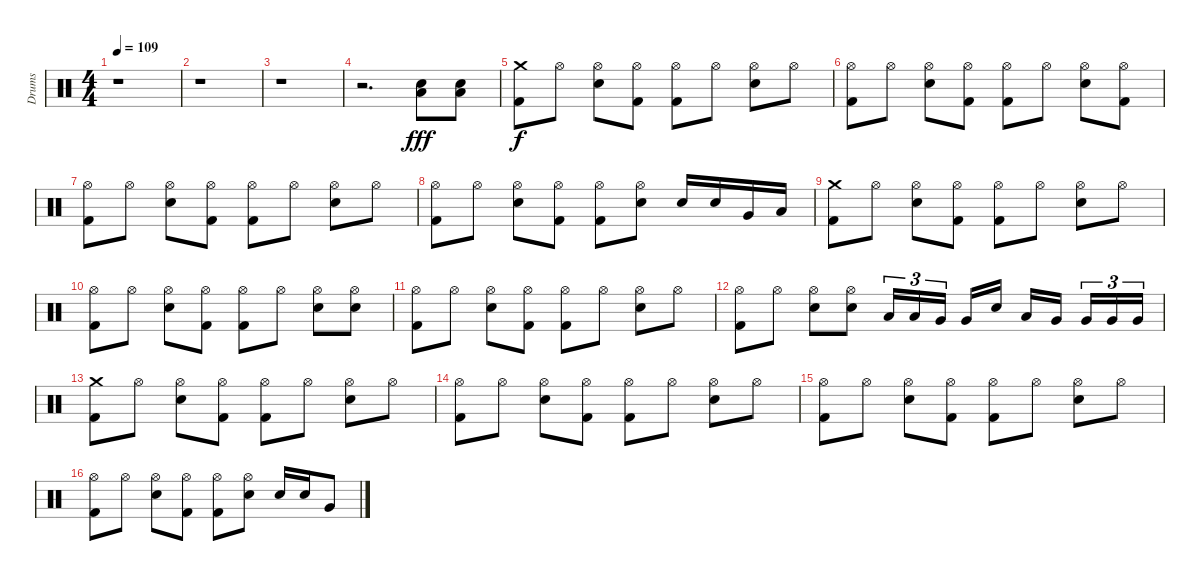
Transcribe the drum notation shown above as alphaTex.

\track ("Drums" "Drums") {instrument percussion}
\staff {score}
\articulation defaults
\ts (4 4)
\tempo 109
\clef neutral
\ks c
r.1{dy f} |
r.1 |
r.1 |
r.2{d} ("Low Floor Tom (hit)" "Electric Snare (hit)").8{dy fff} ("Low Floor Tom (hit)" "Electric Snare (hit)").8 |
("Crash medium (hit)" "Kick (hit) 2").8{dy f} "Hi-Hat (open)".8 ("Hi-Hat (open)" "Electric Snare (hit)").8 ("Hi-Hat (open)" "Kick (hit) 2").8 ("Hi-Hat (open)" "Kick (hit) 2").8 "Hi-Hat (open)".8 ("Hi-Hat (open)" "Electric Snare (hit)").8 "Hi-Hat (open)".8 |
("Hi-Hat (open)" "Kick (hit) 2").8 "Hi-Hat (open)".8 ("Hi-Hat (open)" "Electric Snare (hit)").8 ("Hi-Hat (open)" "Kick (hit) 2").8 ("Hi-Hat (open)" "Kick (hit) 2").8 "Hi-Hat (open)".8 ("Hi-Hat (open)" "Electric Snare (hit)").8 ("Hi-Hat (open)" "Kick (hit) 2").8 |
("Hi-Hat (open)" "Kick (hit) 2").8 "Hi-Hat (open)".8 ("Hi-Hat (open)" "Electric Snare (hit)").8 ("Hi-Hat (open)" "Kick (hit) 2").8 ("Hi-Hat (open)" "Kick (hit) 2").8 "Hi-Hat (open)".8 ("Hi-Hat (open)" "Electric Snare (hit)").8 "Hi-Hat (open)".8 |
("Hi-Hat (open)" "Kick (hit) 2").8 "Hi-Hat (open)".8 ("Hi-Hat (open)" "Electric Snare (hit)").8 ("Hi-Hat (open)" "Kick (hit) 2").8 ("Hi-Hat (open)" "Kick (hit) 2").8 ("Hi-Hat (open)" "Electric Snare (hit)").8 "Electric Snare (hit)".16 "Electric Snare (hit)".16 "Very Low Tom (hit)".16 "Low Tom (hit)".16 |
("Crash medium (hit)" "Kick (hit) 2").8 "Hi-Hat (open)".8 ("Hi-Hat (open)" "Electric Snare (hit)").8 ("Hi-Hat (open)" "Kick (hit) 2").8 ("Hi-Hat (open)" "Kick (hit) 2").8 "Hi-Hat (open)".8 ("Hi-Hat (open)" "Electric Snare (hit)").8 "Hi-Hat (open)".8 |
("Hi-Hat (open)" "Kick (hit) 2").8 "Hi-Hat (open)".8 ("Hi-Hat (open)" "Electric Snare (hit)").8 ("Hi-Hat (open)" "Kick (hit) 2").8 ("Hi-Hat (open)" "Kick (hit) 2").8 "Hi-Hat (open)".8 ("Hi-Hat (open)" "Electric Snare (hit)").8 ("Hi-Hat (open)" "Electric Snare (hit)").8 |
("Hi-Hat (open)" "Kick (hit) 2").8 "Hi-Hat (open)".8 ("Hi-Hat (open)" "Electric Snare (hit)").8 ("Hi-Hat (open)" "Kick (hit) 2").8 ("Hi-Hat (open)" "Kick (hit) 2").8 "Hi-Hat (open)".8 ("Hi-Hat (open)" "Electric Snare (hit)").8 "Hi-Hat (open)".8 |
("Hi-Hat (open)" "Kick (hit) 2").8 "Hi-Hat (open)".8 ("Hi-Hat (open)" "Electric Snare (hit)").8 ("Hi-Hat (open)" "Electric Snare (hit)").8 "Low Tom (hit)".16{tu (3 2)} "Low Tom (hit)".16{tu (3 2)} "Very Low Tom (hit)".16{tu (3 2)} "Very Low Tom (hit)".16 "Electric Snare (hit)".16 "Low Tom (hit)".16 "Very Low Tom (hit)".16 "Very Low Tom (hit)".16{tu (3 2)} "Very Low Tom (hit)".16{tu (3 2)} "Very Low Tom (hit)".16{tu (3 2)} |
("Crash medium (hit)" "Kick (hit) 2").8 "Hi-Hat (open)".8 ("Hi-Hat (open)" "Electric Snare (hit)").8 ("Hi-Hat (open)" "Kick (hit) 2").8 ("Hi-Hat (open)" "Kick (hit) 2").8 "Hi-Hat (open)".8 ("Hi-Hat (open)" "Electric Snare (hit)").8 "Hi-Hat (open)".8 |
("Hi-Hat (open)" "Kick (hit) 2").8 "Hi-Hat (open)".8 ("Hi-Hat (open)" "Electric Snare (hit)").8 ("Hi-Hat (open)" "Kick (hit) 2").8 ("Hi-Hat (open)" "Kick (hit) 2").8 "Hi-Hat (open)".8 ("Hi-Hat (open)" "Electric Snare (hit)").8 "Hi-Hat (open)".8 |
("Hi-Hat (open)" "Kick (hit) 2").8 "Hi-Hat (open)".8 ("Hi-Hat (open)" "Electric Snare (hit)").8 ("Hi-Hat (open)" "Kick (hit) 2").8 ("Hi-Hat (open)" "Kick (hit) 2").8 "Hi-Hat (open)".8 ("Hi-Hat (open)" "Electric Snare (hit)").8 "Hi-Hat (open)".8 |
("Hi-Hat (open)" "Kick (hit) 2").8 "Hi-Hat (open)".8 ("Hi-Hat (open)" "Electric Snare (hit)").8 ("Hi-Hat (open)" "Kick (hit) 2").8 ("Hi-Hat (open)" "Kick (hit) 2").8 ("Hi-Hat (open)" "Electric Snare (hit)").8 "Electric Snare (hit)".16 "Electric Snare (hit)".16 "Very Low Tom (hit)".8
